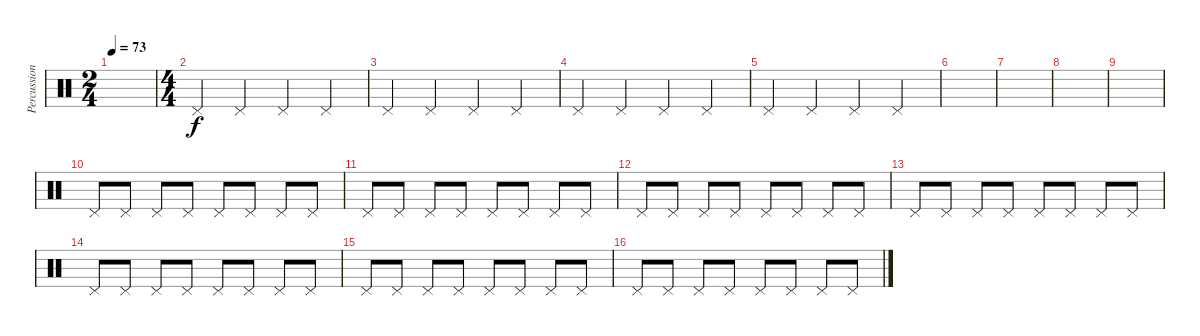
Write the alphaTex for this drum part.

\track ("Percussion" "Percussion") {instrument percussion}
\staff {score}
\articulation defaults
\ts (2 4)
\tempo 73
\clef neutral
\ks c
|
\ts (4 4)
"Pedal Hi-Hat (hit)".4 "Pedal Hi-Hat (hit)".4 "Pedal Hi-Hat (hit)".4 "Pedal Hi-Hat (hit)".4 |
"Pedal Hi-Hat (hit)".4 "Pedal Hi-Hat (hit)".4 "Pedal Hi-Hat (hit)".4 "Pedal Hi-Hat (hit)".4 |
"Pedal Hi-Hat (hit)".4 "Pedal Hi-Hat (hit)".4 "Pedal Hi-Hat (hit)".4 "Pedal Hi-Hat (hit)".4 |
"Pedal Hi-Hat (hit)".4 "Pedal Hi-Hat (hit)".4 "Pedal Hi-Hat (hit)".4 "Pedal Hi-Hat (hit)".4 |
|
|
|
|
"Pedal Hi-Hat (hit)".8 "Pedal Hi-Hat (hit)".8 "Pedal Hi-Hat (hit)".8 "Pedal Hi-Hat (hit)".8 "Pedal Hi-Hat (hit)".8 "Pedal Hi-Hat (hit)".8 "Pedal Hi-Hat (hit)".8 "Pedal Hi-Hat (hit)".8 |
"Pedal Hi-Hat (hit)".8 "Pedal Hi-Hat (hit)".8 "Pedal Hi-Hat (hit)".8 "Pedal Hi-Hat (hit)".8 "Pedal Hi-Hat (hit)".8 "Pedal Hi-Hat (hit)".8 "Pedal Hi-Hat (hit)".8 "Pedal Hi-Hat (hit)".8 |
"Pedal Hi-Hat (hit)".8 "Pedal Hi-Hat (hit)".8 "Pedal Hi-Hat (hit)".8 "Pedal Hi-Hat (hit)".8 "Pedal Hi-Hat (hit)".8 "Pedal Hi-Hat (hit)".8 "Pedal Hi-Hat (hit)".8 "Pedal Hi-Hat (hit)".8 |
"Pedal Hi-Hat (hit)".8 "Pedal Hi-Hat (hit)".8 "Pedal Hi-Hat (hit)".8 "Pedal Hi-Hat (hit)".8 "Pedal Hi-Hat (hit)".8 "Pedal Hi-Hat (hit)".8 "Pedal Hi-Hat (hit)".8 "Pedal Hi-Hat (hit)".8 |
"Pedal Hi-Hat (hit)".8 "Pedal Hi-Hat (hit)".8 "Pedal Hi-Hat (hit)".8 "Pedal Hi-Hat (hit)".8 "Pedal Hi-Hat (hit)".8 "Pedal Hi-Hat (hit)".8 "Pedal Hi-Hat (hit)".8 "Pedal Hi-Hat (hit)".8 |
"Pedal Hi-Hat (hit)".8 "Pedal Hi-Hat (hit)".8 "Pedal Hi-Hat (hit)".8 "Pedal Hi-Hat (hit)".8 "Pedal Hi-Hat (hit)".8 "Pedal Hi-Hat (hit)".8 "Pedal Hi-Hat (hit)".8 "Pedal Hi-Hat (hit)".8 |
"Pedal Hi-Hat (hit)".8 "Pedal Hi-Hat (hit)".8 "Pedal Hi-Hat (hit)".8 "Pedal Hi-Hat (hit)".8 "Pedal Hi-Hat (hit)".8 "Pedal Hi-Hat (hit)".8 "Pedal Hi-Hat (hit)".8 "Pedal Hi-Hat (hit)".8
